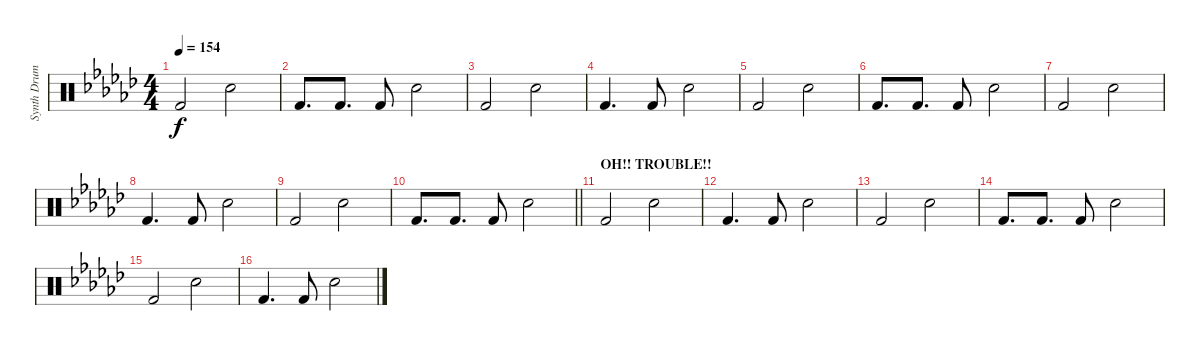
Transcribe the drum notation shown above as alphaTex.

\track ("Synth Drums" "Synth Drum") {instrument percussion}
\staff {score}
\articulation defaults
\ts (4 4)
\tempo 154
\clef neutral
\ks gb "Kick (hit) 2".2{dy f} "Electric Snare (hit)".2
|
"Kick (hit) 2".8{d} "Kick (hit) 2".8{d} "Kick (hit) 2".8 "Electric Snare (hit)".2 |
"Kick (hit) 2".2 "Electric Snare (hit)".2 |
"Kick (hit) 2".4{d} "Kick (hit) 2".8 "Electric Snare (hit)".2 |
"Kick (hit) 2".2 "Electric Snare (hit)".2 |
"Kick (hit) 2".8{d} "Kick (hit) 2".8{d} "Kick (hit) 2".8 "Electric Snare (hit)".2 |
"Kick (hit) 2".2 "Electric Snare (hit)".2 |
"Kick (hit) 2".4{d} "Kick (hit) 2".8 "Electric Snare (hit)".2 |
"Kick (hit) 2".2 "Electric Snare (hit)".2 |
\barLineRight lightlight "Kick (hit) 2".8{d} "Kick (hit) 2".8{d} "Kick (hit) 2".8 "Electric Snare (hit)".2
|
\section ("" "OH!! TROUBLE!!")
"Kick (hit) 2".2 "Electric Snare (hit)".2 |
"Kick (hit) 2".4{d} "Kick (hit) 2".8 "Electric Snare (hit)".2 |
"Kick (hit) 2".2 "Electric Snare (hit)".2 |
"Kick (hit) 2".8{d} "Kick (hit) 2".8{d} "Kick (hit) 2".8 "Electric Snare (hit)".2 |
"Kick (hit) 2".2 "Electric Snare (hit)".2 |
"Kick (hit) 2".4{d} "Kick (hit) 2".8 "Electric Snare (hit)".2
